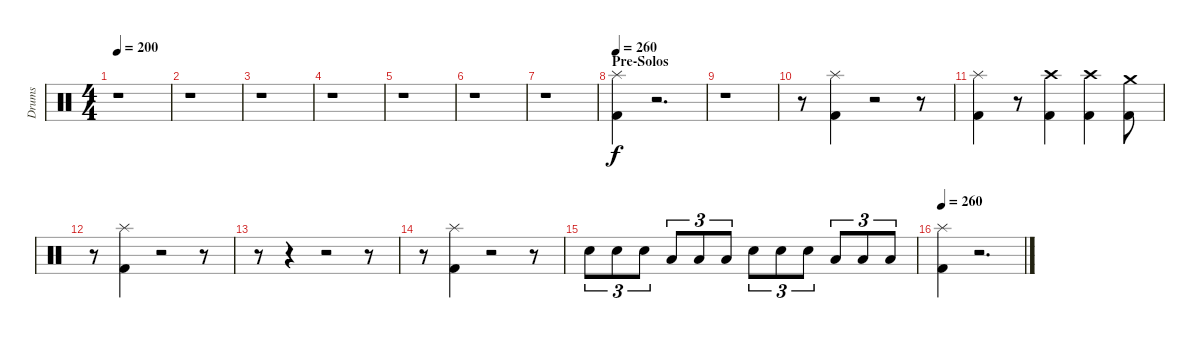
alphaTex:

\track ("Drums" "Drums") {instrument percussion}
\staff {score}
\articulation defaults
\ts (4 4)
\tempo 200
\clef neutral
\ks c
r.1{dy f} |
r.1 |
r.1 |
r.1 |
r.1 |
r.1 |
r.1 |
\section ("" "Pre-Solos")
\tempo 260
("Splash (hit)" "Kick (hit) 2").4 r.2{d} |
r.1 |
r.8 ("Splash (hit)" "Kick (hit) 2").4 r.2 r.8 |
("Splash (hit)" "Kick (hit) 2").4 r.8 ("Crash high (hit)" "Kick (hit) 2").4 ("Crash high (hit)" "Kick (hit) 2").4 ("Crash medium (hit)" "Kick (hit) 2").8 |
r.8 ("Splash (hit)" "Kick (hit) 2").4 r.2 r.8 |
r.8 r.4 r.2 r.8 |
r.8 ("Splash (hit)" "Kick (hit) 2").4 r.2 r.8 |
"Electric Snare (hit)".8{tu (3 2)} "Electric Snare (hit)".8{tu (3 2)} "Electric Snare (hit)".8{tu (3 2)} "Low Tom (hit)".8{tu (3 2)} "Low Tom (hit)".8{tu (3 2)} "Low Tom (hit)".8{tu (3 2)} "Electric Snare (hit)".8{tu (3 2)} "Electric Snare (hit)".8{tu (3 2)} "Electric Snare (hit)".8{tu (3 2)} "Low Tom (hit)".8{tu (3 2)} "Low Tom (hit)".8{tu (3 2)} "Low Tom (hit)".8{tu (3 2)} |
\tempo 260
("Splash (hit)" "Kick (hit) 2").4 r.2{d}
